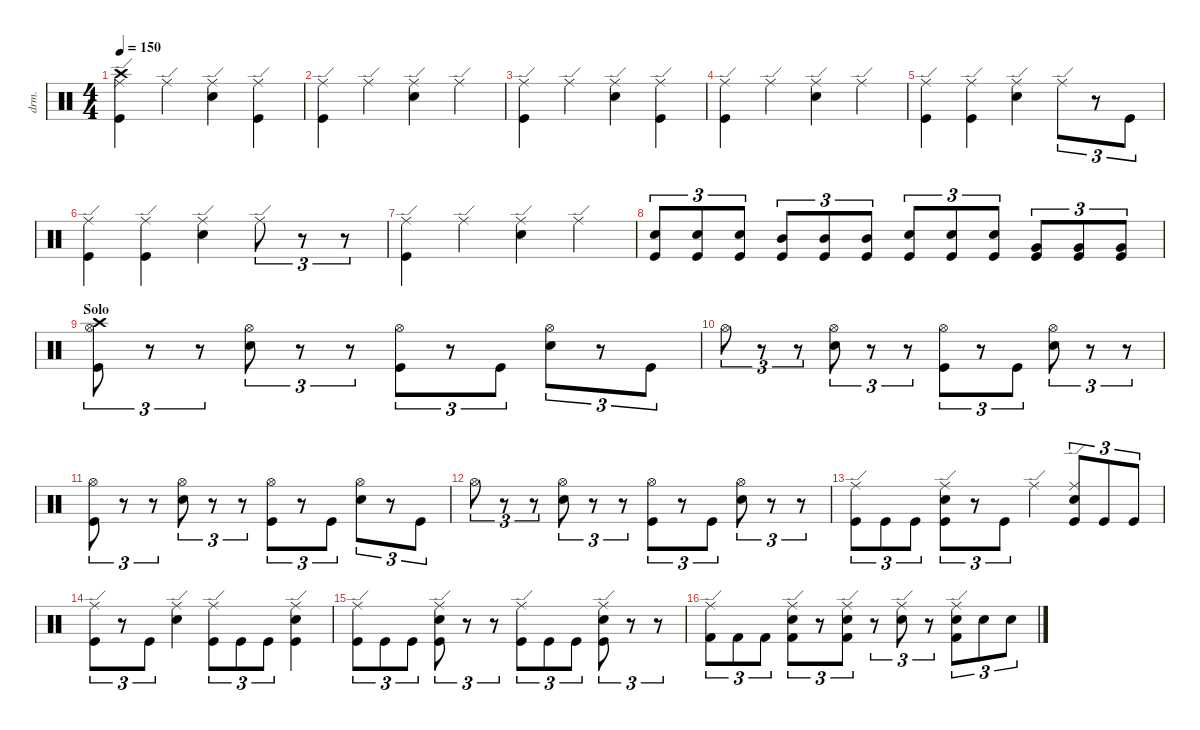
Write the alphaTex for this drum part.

\defaultSystemsLayout 4
\hideDynamics
\bracketExtendMode nobrackets
\otherSystemsTrackNameOrientation horizontal
\track ("Drumkit" "drm.") {solo instrument percussion}
\staff {score}
\articulation defaults
\ts (4 4)
\scale
1.15113
\tempo 150
\accidentals auto
\clef neutral
\ottava regular
\simile none
\ks aminor
("Kick (hit)" "Ride (edge)" "Crash high (hit)").4{dy mf beam Down} "Ride (edge)".4{beam Down} ("Ride (edge)" "Snare (hit) 2").4{beam Down} ("Kick (hit)" "Ride (edge)").4{beam Down} |
\scale
0.973358 ("Kick (hit)" "Ride (edge)").4{beam Down} "Ride (edge)".4{beam Down} ("Ride (edge)" "Snare (hit) 2").4{beam Down} "Ride (edge)".4{beam Down} |
\scale
0.973358 ("Kick (hit)" "Ride (edge)").4{beam Down} "Ride (edge)".4{beam Down} ("Ride (edge)" "Snare (hit) 2").4{beam Down} ("Kick (hit)" "Ride (edge)").4{beam Down} |
\scale
0.973358 ("Kick (hit)" "Ride (edge)").4{beam Down} "Ride (edge)".4{beam Down} ("Ride (edge)" "Snare (hit) 2").4{beam Down} "Ride (edge)".4{beam Down} |
\scale
0.973358 ("Kick (hit)" "Ride (edge)").4{beam Down} ("Ride (edge)" "Kick (hit)").4{beam Down} ("Ride (edge)" "Snare (hit) 2").4{beam Down} "Ride (edge)".8{tu (3 2) beam Down} r.8{tu (3 2) beam Down} "Kick (hit)".8{tu (3 2) beam Down} |
\scale
0.973358 ("Kick (hit)" "Ride (edge)").4{beam Down} ("Ride (edge)" "Kick (hit)").4{beam Down} ("Ride (edge)" "Snare (hit) 2").4{beam Down} "Ride (edge)".8{tu (3 2) beam Down} r.8{tu (3 2) beam Down} r.8{tu (3 2) beam Down} |
\scale
0.973358 ("Kick (hit)" "Ride (edge)").4{beam Down} "Ride (edge)".4{beam Down} ("Ride (edge)" "Snare (hit) 2").4{beam Down} "Ride (edge)".4{beam Down} |
\scale
1.00873 ("Snare (hit) 2" "Kick (hit)").8{tu (3 2) beam Up} ("Snare (hit) 2" "Kick (hit)").8{tu (3 2) beam Up} ("Snare (hit) 2" "Kick (hit)").8{tu (3 2) beam Up} ("Mid Tom (hit)" "Kick (hit)").8{tu (3 2) beam Up} ("Mid Tom (hit)" "Kick (hit)").8{tu (3 2) beam Up} ("Mid Tom (hit)" "Kick (hit)").8{tu (3 2) beam Up} ("Snare (hit) 2" "Kick (hit)").8{tu (3 2) beam Up} ("Snare (hit) 2" "Kick (hit)").8{tu (3 2) beam Up} ("Snare (hit) 2" "Kick (hit)").8{tu (3 2) beam Up} ("Very Low Tom (hit)" "Kick (hit)").8{tu (3 2) beam Up} ("Very Low Tom (hit)" "Kick (hit)").8{tu (3 2) beam Up} ("Very Low Tom (hit)" "Kick (hit)").8{tu (3 2) beam Up} |
\section ("" "Solo")
\scale
1.06666 ("Hi-Hat (open)" "Kick (hit)" "Crash high (hit)").8{tu (3 2) beam Down} r.8{tu (3 2) beam Down} r.8{tu (3 2) beam Down} ("Hi-Hat (open)" "Snare (hit) 2").8{tu (3 2) beam Down} r.8{tu (3 2) beam Down} r.8{tu (3 2) beam Down} ("Hi-Hat (open)" "Kick (hit)").8{tu (3 2) beam Down} r.8{tu (3 2) beam Down} "Kick (hit)".8{tu (3 2) beam Down} ("Hi-Hat (open)" "Snare (hit) 2").8{tu (3 2) beam Down} r.8{tu (3 2) beam Down} "Kick (hit)".8{tu (3 2) beam Down} |
\scale
0.977779 "Hi-Hat (open)".8{tu (3 2) beam Down} r.8{tu (3 2) beam Down} r.8{tu (3 2) beam Down} ("Hi-Hat (open)" "Snare (hit) 2").8{tu (3 2) beam Down} r.8{tu (3 2) beam Down} r.8{tu (3 2) beam Down} ("Hi-Hat (open)" "Kick (hit)").8{tu (3 2) beam Down} r.8{tu (3 2) beam Down} "Kick (hit)".8{tu (3 2) beam Down} ("Hi-Hat (open)" "Snare (hit) 2").8{tu (3 2) beam Down} r.8{tu (3 2) beam Down} r.8{tu (3 2) beam Down} |
\scale
0.977779 ("Hi-Hat (open)" "Kick (hit)").8{tu (3 2) beam Down} r.8{tu (3 2) beam Down} r.8{tu (3 2) beam Down} ("Hi-Hat (open)" "Snare (hit) 2").8{tu (3 2) beam Down} r.8{tu (3 2) beam Down} r.8{tu (3 2) beam Down} ("Hi-Hat (open)" "Kick (hit)").8{tu (3 2) beam Down} r.8{tu (3 2) beam Down} "Kick (hit)".8{tu (3 2) beam Down} ("Hi-Hat (open)" "Snare (hit) 2").8{tu (3 2) beam Down} r.8{tu (3 2) beam Down} "Kick (hit)".8{tu (3 2) beam Down} |
\scale
0.977779 "Hi-Hat (open)".8{tu (3 2) beam Down} r.8{tu (3 2) beam Down} r.8{tu (3 2) beam Down} ("Hi-Hat (open)" "Snare (hit) 2").8{tu (3 2) beam Down} r.8{tu (3 2) beam Down} r.8{tu (3 2) beam Down} ("Hi-Hat (open)" "Kick (hit)").8{tu (3 2) beam Down} r.8{tu (3 2) beam Down} "Kick (hit)".8{tu (3 2) beam Down} ("Hi-Hat (open)" "Snare (hit) 2").8{tu (3 2) beam Down} r.8{tu (3 2) beam Down} r.8{tu (3 2) beam Down} |
\scale
1.06224 ("Ride (edge)" "Kick (hit)").8{tu (3 2) beam Down} "Kick (hit)".8{tu (3 2) beam Down} "Kick (hit)".8{tu (3 2) beam Down} ("Ride (edge)" "Snare (hit) 2" "Kick (hit)").8{tu (3 2) beam Down} r.8{tu (3 2) beam Down} "Kick (hit)".8{tu (3 2) beam Down} "Ride (edge)".4{beam Down} ("Ride (edge)" "Snare (hit) 2" "Kick (hit)").8{tu (3 2) beam Up} "Kick (hit)".8{tu (3 2) beam Up} "Kick (hit)".8{tu (3 2) beam Up} |
\scale
0.973358 ("Ride (edge)" "Kick (hit)").8{tu (3 2) beam Down} r.8{tu (3 2) beam Down} "Kick (hit)".8{tu (3 2) beam Down} ("Ride (edge)" "Snare (hit) 2").4{beam Down} ("Ride (edge)" "Kick (hit)").8{tu (3 2) beam Down} "Kick (hit)".8{tu (3 2) beam Down} "Kick (hit)".8{tu (3 2) beam Down} ("Ride (edge)" "Snare (hit) 2" "Kick (hit)").4{beam Down} |
\scale
0.973358 ("Kick (hit)" "Ride (edge)").8{tu (3 2) beam Down} "Kick (hit)".8{tu (3 2) beam Down} "Kick (hit)".8{tu (3 2) beam Down} ("Kick (hit)" "Snare (hit) 2" "Ride (edge)").8{tu (3 2) beam Down} r.8{tu (3 2) beam Down} r.8{tu (3 2) beam Down} ("Kick (hit)" "Ride (edge)").8{tu (3 2) beam Down} "Kick (hit)".8{tu (3 2) beam Down} "Kick (hit)".8{tu (3 2) beam Down} ("Kick (hit)" "Snare (hit) 2" "Ride (edge)").8{tu (3 2) beam Down} r.8{tu (3 2) beam Down} r.8{tu (3 2) beam Down} |
\scale
0.991042 ("Kick (hit) 2" "Ride (edge)").8{tu (3 2) beam Down} "Kick (hit) 2".8{tu (3 2) beam Down} "Kick (hit) 2".8{tu (3 2) beam Down} ("Kick (hit) 2" "Snare (hit) 2" "Ride (edge)").8{tu (3 2) beam Down} r.8{tu (3 2) beam Down} ("Kick (hit) 2" "Snare (hit) 2" "Ride (edge)").8{tu (3 2) beam Down} r.8{tu (3 2) beam Down} ("Snare (hit) 2" "Ride (edge)").8{tu (3 2) beam Down} r.8{tu (3 2) beam Down} ("Snare (hit) 2" "Kick (hit) 2" "Ride (edge)").8{tu (3 2) beam Down} "Snare (hit) 2".8{tu (3 2) beam Down} "Snare (hit) 2".8{tu (3 2) beam Down}
